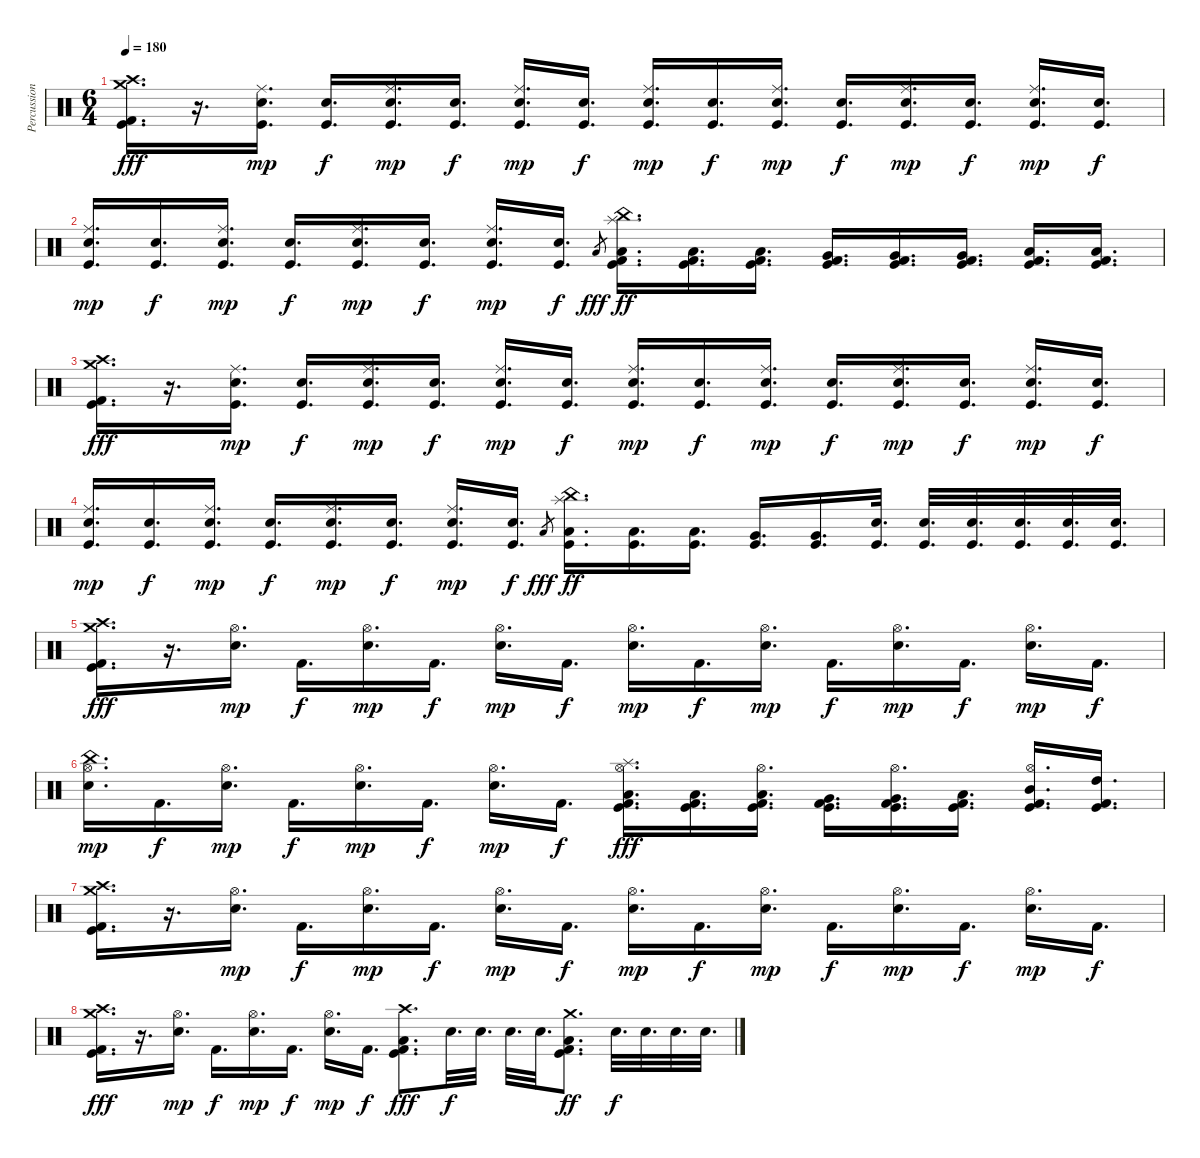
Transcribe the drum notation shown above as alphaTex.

\track ("Percussions" "Percussion") {instrument percussion}
\staff {score}
\articulation defaults
\ts (6 4)
\tempo 180
\clef neutral
\ks c
("Crash high (hit)" "Crash medium (hit)" "Kick (hit)" "Kick (hit) 2").16{d dy fff} r.16{d} ("Ride (middle)" "Electric Snare (hit)" "Kick (hit)").16{d dy mp} ("Electric Snare (hit)" "Kick (hit)").16{d dy f} ("Ride (middle)" "Electric Snare (hit)" "Kick (hit)").16{d dy mp} ("Electric Snare (hit)" "Kick (hit)").16{d dy f} ("Ride (middle)" "Electric Snare (hit)" "Kick (hit)").16{d dy mp} ("Electric Snare (hit)" "Kick (hit)").16{d dy f} ("Ride (middle)" "Electric Snare (hit)" "Kick (hit)").16{d dy mp} ("Electric Snare (hit)" "Kick (hit)").16{d dy f} ("Ride (middle)" "Electric Snare (hit)" "Kick (hit)").16{d dy mp} ("Electric Snare (hit)" "Kick (hit)").16{d dy f} ("Ride (middle)" "Electric Snare (hit)" "Kick (hit)").16{d dy mp} ("Electric Snare (hit)" "Kick (hit)").16{d dy f} ("Ride (middle)" "Electric Snare (hit)" "Kick (hit)").16{d dy mp} ("Electric Snare (hit)" "Kick (hit)").16{d dy f} |
("Ride (middle)" "Electric Snare (hit)" "Kick (hit)").16{d dy mp} ("Electric Snare (hit)" "Kick (hit)").16{d dy f} ("Ride (middle)" "Electric Snare (hit)" "Kick (hit)").16{d dy mp} ("Electric Snare (hit)" "Kick (hit)").16{d dy f} ("Ride (middle)" "Electric Snare (hit)" "Kick (hit)").16{d dy mp} ("Electric Snare (hit)" "Kick (hit)").16{d dy f} ("Ride (middle)" "Electric Snare (hit)" "Kick (hit)").16{d dy mp} ("Electric Snare (hit)" "Kick (hit)").16{d dy f} "Low Floor Tom (hit)".8{gr dy fff} ("Splash (hit)" "China (hit)" "Low Floor Tom (hit)" "Kick (hit) 2" "Kick (hit)").16{d dy ff} ("Low Floor Tom (hit)" "Kick (hit) 2" "Kick (hit)").16{d} ("Low Floor Tom (hit)" "Kick (hit) 2" "Kick (hit)").16{d} ("Very Low Tom (hit)" "Kick (hit) 2" "Kick (hit)").16{d} ("Very Low Tom (hit)" "Kick (hit) 2" "Kick (hit)").16{d} ("Very Low Tom (hit)" "Kick (hit) 2" "Kick (hit)").16{d} ("Low Tom (hit)" "Kick (hit) 2" "Kick (hit)").16{d} ("Low Tom (hit)" "Kick (hit) 2" "Kick (hit)").16{d} |
("Crash high (hit)" "Crash medium (hit)" "Kick (hit)" "Kick (hit) 2").16{d dy fff} r.16{d} ("Ride (middle)" "Electric Snare (hit)" "Kick (hit)").16{d dy mp} ("Electric Snare (hit)" "Kick (hit)").16{d dy f} ("Ride (middle)" "Electric Snare (hit)" "Kick (hit)").16{d dy mp} ("Electric Snare (hit)" "Kick (hit)").16{d dy f} ("Ride (middle)" "Electric Snare (hit)" "Kick (hit)").16{d dy mp} ("Electric Snare (hit)" "Kick (hit)").16{d dy f} ("Ride (middle)" "Electric Snare (hit)" "Kick (hit)").16{d dy mp} ("Electric Snare (hit)" "Kick (hit)").16{d dy f} ("Ride (middle)" "Electric Snare (hit)" "Kick (hit)").16{d dy mp} ("Electric Snare (hit)" "Kick (hit)").16{d dy f} ("Ride (middle)" "Electric Snare (hit)" "Kick (hit)").16{d dy mp} ("Electric Snare (hit)" "Kick (hit)").16{d dy f} ("Ride (middle)" "Electric Snare (hit)" "Kick (hit)").16{d dy mp} ("Electric Snare (hit)" "Kick (hit)").16{d dy f} |
("Ride (middle)" "Electric Snare (hit)" "Kick (hit)").16{d dy mp} ("Electric Snare (hit)" "Kick (hit)").16{d dy f} ("Ride (middle)" "Electric Snare (hit)" "Kick (hit)").16{d dy mp} ("Electric Snare (hit)" "Kick (hit)").16{d dy f} ("Ride (middle)" "Electric Snare (hit)" "Kick (hit)").16{d dy mp} ("Electric Snare (hit)" "Kick (hit)").16{d dy f} ("Ride (middle)" "Electric Snare (hit)" "Kick (hit)").16{d dy mp} ("Electric Snare (hit)" "Kick (hit)").16{d dy f} "Low Floor Tom (hit)".8{gr dy fff} ("Splash (hit)" "China (hit)" "Low Floor Tom (hit)" "Kick (hit)").16{d dy ff} ("Low Floor Tom (hit)" "Kick (hit)").16{d} ("Low Floor Tom (hit)" "Kick (hit)").16{d} ("Very Low Tom (hit)" "Kick (hit)").16{d} ("Very Low Tom (hit)" "Kick (hit)").16{d} ("Electric Snare (hit)" "Kick (hit)").32{d} ("Electric Snare (hit)" "Kick (hit)").32{d} ("Electric Snare (hit)" "Kick (hit)").32{d} ("Electric Snare (hit)" "Kick (hit)").32{d} ("Electric Snare (hit)" "Kick (hit)").32{d} ("Electric Snare (hit)" "Kick (hit)").32{d} |
("Crash high (hit)" "Crash medium (hit)" "Kick (hit)" "Kick (hit) 2").16{d dy fff} r.16{d} ("Hi-Hat (open)" "Electric Snare (hit)").16{d dy mp} "Kick (hit) 2".16{d dy f} ("Hi-Hat (open)" "Electric Snare (hit)").16{d dy mp} "Kick (hit) 2".16{d dy f} ("Hi-Hat (open)" "Electric Snare (hit)").16{d dy mp} "Kick (hit) 2".16{d dy f} ("Hi-Hat (open)" "Electric Snare (hit)").16{d dy mp} "Kick (hit) 2".16{d dy f} ("Hi-Hat (open)" "Electric Snare (hit)").16{d dy mp} "Kick (hit) 2".16{d dy f} ("Hi-Hat (open)" "Electric Snare (hit)").16{d dy mp} "Kick (hit) 2".16{d dy f} ("Hi-Hat (open)" "Electric Snare (hit)").16{d dy mp} "Kick (hit) 2".16{d dy f} |
("China (hit)" "Hi-Hat (open)" "Electric Snare (hit)").16{d dy mp} "Kick (hit) 2".16{d dy f} ("Hi-Hat (open)" "Electric Snare (hit)").16{d dy mp} "Kick (hit) 2".16{d dy f} ("Hi-Hat (open)" "Electric Snare (hit)").16{d dy mp} "Kick (hit) 2".16{d dy f} ("Hi-Hat (open)" "Electric Snare (hit)").16{d dy mp} "Kick (hit) 2".16{d dy f} ("Splash (hit)" "Hi-Hat (open)" "Low Floor Tom (hit)" "Kick (hit)" "Kick (hit) 2").16{d dy fff} ("Low Floor Tom (hit)" "Kick (hit)" "Kick (hit) 2").16{d} ("Hi-Hat (open)" "Low Floor Tom (hit)" "Kick (hit)" "Kick (hit) 2").16{d} ("Very Low Tom (hit)" "Kick (hit)" "Kick (hit) 2").16{d} ("Hi-Hat (open)" "Very Low Tom (hit)" "Kick (hit)" "Kick (hit) 2").16{d} ("Low Tom (hit)" "Kick (hit)" "Kick (hit) 2").16{d} ("Hi-Hat (open)" "Mid Tom (hit)" "Kick (hit)" "Kick (hit) 2").16{d} ("High Tom (hit)" "Kick (hit)" "Kick (hit) 2").16{d} |
("Crash high (hit)" "Crash medium (hit)" "Kick (hit)" "Kick (hit) 2").16{d} r.16{d} ("Hi-Hat (open)" "Electric Snare (hit)").16{d dy mp} "Kick (hit) 2".16{d dy f} ("Hi-Hat (open)" "Electric Snare (hit)").16{d dy mp} "Kick (hit) 2".16{d dy f} ("Hi-Hat (open)" "Electric Snare (hit)").16{d dy mp} "Kick (hit) 2".16{d dy f} ("Hi-Hat (open)" "Electric Snare (hit)").16{d dy mp} "Kick (hit) 2".16{d dy f} ("Hi-Hat (open)" "Electric Snare (hit)").16{d dy mp} "Kick (hit) 2".16{d dy f} ("Hi-Hat (open)" "Electric Snare (hit)").16{d dy mp} "Kick (hit) 2".16{d dy f} ("Hi-Hat (open)" "Electric Snare (hit)").16{d dy mp} "Kick (hit) 2".16{d dy f} |
("Crash high (hit)" "Crash medium (hit)" "Kick (hit)" "Kick (hit) 2").16{d dy fff} r.16{d} ("Hi-Hat (open)" "Electric Snare (hit)").16{d dy mp} "Kick (hit) 2".16{d dy f} ("Hi-Hat (open)" "Electric Snare (hit)").16{d dy mp} "Kick (hit) 2".16{d dy f} ("Hi-Hat (open)" "Electric Snare (hit)").16{d dy mp} "Kick (hit) 2".16{d dy f} ("Crash high (hit)" "Low Floor Tom (hit)" "Kick (hit)" "Kick (hit) 2").8{d dy fff} "Electric Snare (hit)".32{d dy f} "Electric Snare (hit)".32{d} "Electric Snare (hit)".32{d} "Electric Snare (hit)".32{d} ("Crash medium (hit)" "Low Floor Tom (hit)" "Kick (hit)" "Kick (hit) 2").8{d dy ff} "Electric Snare (hit)".32{d dy f} "Electric Snare (hit)".32{d} "Electric Snare (hit)".32{d} "Electric Snare (hit)".32{d}
